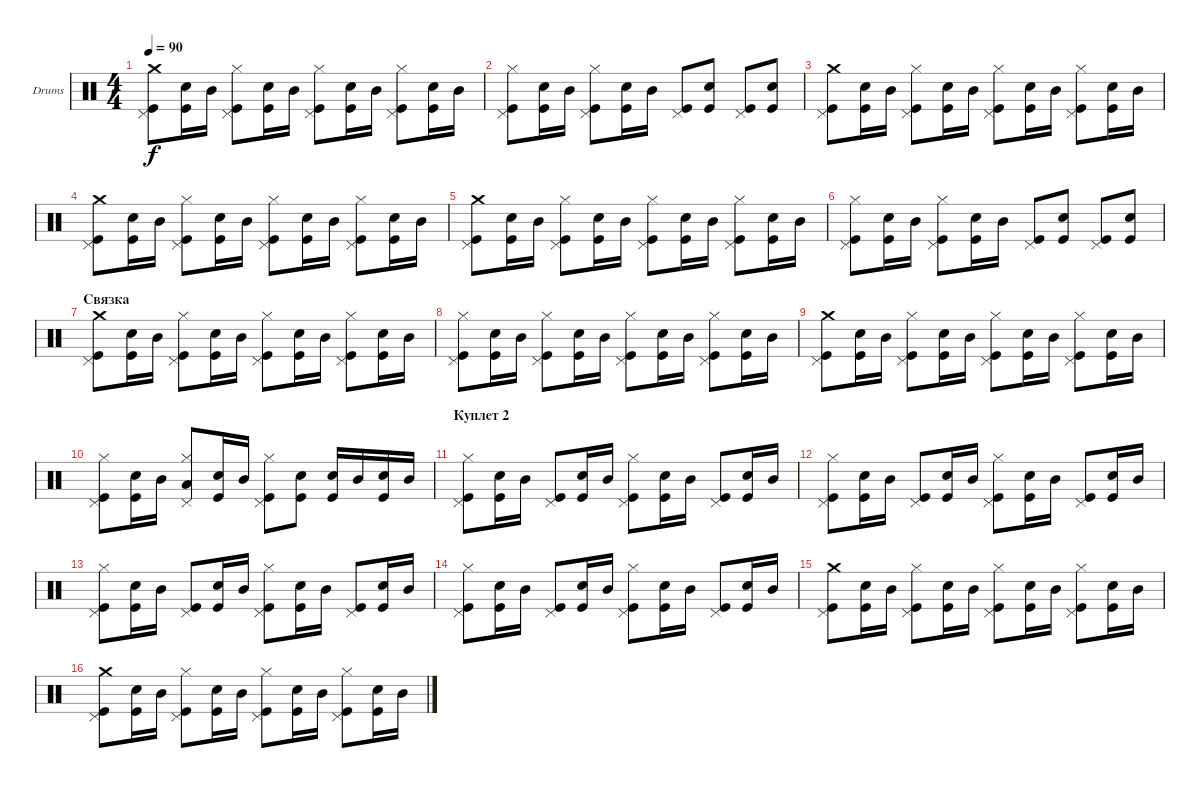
\defaultSystemsLayout 4
\bracketExtendMode groupsimilarinstruments
\firstSystemTrackNameOrientation horizontal
\otherSystemsTrackNameOrientation horizontal
\track ("Drums" "Drums") {instrument percussion}
\staff {score}
\articulation defaults
\ts (4 4)
\tempo 90
\clef neutral
\ks c
("Kick (hit)" "Pedal Hi-Hat (hit)" "Crash medium (hit)").8{dy f} ("Snare (hit) 2" "Kick (hit)").16 "Mid Tom (hit)".16 ("Pedal Hi-Hat (hit)" "Hi-Hat (closed)" "Kick (hit)").8 ("Snare (hit) 2" "Kick (hit)").16 "Mid Tom (hit)".16 ("Kick (hit)" "Pedal Hi-Hat (hit)" "Hi-Hat (closed)").8 ("Snare (hit) 2" "Kick (hit)").16 "Mid Tom (hit)".16 ("Kick (hit)" "Pedal Hi-Hat (hit)" "Hi-Hat (closed)").8 ("Snare (hit) 2" "Kick (hit)").16 "Mid Tom (hit)".16 |
("Kick (hit)" "Pedal Hi-Hat (hit)" "Hi-Hat (closed)").8 ("Snare (hit) 2" "Kick (hit)").16 "Mid Tom (hit)".16 ("Pedal Hi-Hat (hit)" "Hi-Hat (closed)" "Kick (hit)").8 ("Snare (hit) 2" "Kick (hit)").16 "Mid Tom (hit)".16 ("Kick (hit)" "Pedal Hi-Hat (hit)").8 ("Snare (hit) 2" "Kick (hit)").8 ("Kick (hit)" "Pedal Hi-Hat (hit)").8 ("Snare (hit) 2" "Kick (hit)").8 |
\scale
0.333333 ("Kick (hit)" "Pedal Hi-Hat (hit)" "Crash medium (hit)").8 ("Snare (hit) 2" "Kick (hit)").16 "Mid Tom (hit)".16 ("Pedal Hi-Hat (hit)" "Hi-Hat (closed)" "Kick (hit)").8 ("Snare (hit) 2" "Kick (hit)").16 "Mid Tom (hit)".16 ("Kick (hit)" "Pedal Hi-Hat (hit)" "Hi-Hat (closed)").8 ("Snare (hit) 2" "Kick (hit)").16 "Mid Tom (hit)".16 ("Kick (hit)" "Pedal Hi-Hat (hit)" "Hi-Hat (closed)").8 ("Snare (hit) 2" "Kick (hit)").16 "Mid Tom (hit)".16 |
\scale
0.333333 ("Kick (hit)" "Pedal Hi-Hat (hit)" "Crash medium (hit)").8 ("Snare (hit) 2" "Kick (hit)").16 "Mid Tom (hit)".16 ("Pedal Hi-Hat (hit)" "Hi-Hat (closed)" "Kick (hit)").8 ("Snare (hit) 2" "Kick (hit)").16 "Mid Tom (hit)".16 ("Kick (hit)" "Pedal Hi-Hat (hit)" "Hi-Hat (closed)").8 ("Snare (hit) 2" "Kick (hit)").16 "Mid Tom (hit)".16 ("Kick (hit)" "Pedal Hi-Hat (hit)" "Hi-Hat (closed)").8 ("Snare (hit) 2" "Kick (hit)").16 "Mid Tom (hit)".16 |
\scale
0.333333 ("Kick (hit)" "Pedal Hi-Hat (hit)" "Crash medium (hit)").8 ("Snare (hit) 2" "Kick (hit)").16 "Mid Tom (hit)".16 ("Pedal Hi-Hat (hit)" "Hi-Hat (closed)" "Kick (hit)").8 ("Snare (hit) 2" "Kick (hit)").16 "Mid Tom (hit)".16 ("Kick (hit)" "Pedal Hi-Hat (hit)" "Hi-Hat (closed)").8 ("Snare (hit) 2" "Kick (hit)").16 "Mid Tom (hit)".16 ("Kick (hit)" "Pedal Hi-Hat (hit)" "Hi-Hat (closed)").8 ("Snare (hit) 2" "Kick (hit)").16 "Mid Tom (hit)".16 |
\scale
0.333333 ("Kick (hit)" "Pedal Hi-Hat (hit)" "Hi-Hat (closed)").8 ("Snare (hit) 2" "Kick (hit)").16 "Mid Tom (hit)".16 ("Pedal Hi-Hat (hit)" "Hi-Hat (closed)" "Kick (hit)").8 ("Snare (hit) 2" "Kick (hit)").16 "Mid Tom (hit)".16 ("Kick (hit)" "Pedal Hi-Hat (hit)").8 ("Snare (hit) 2" "Kick (hit)").8 ("Kick (hit)" "Pedal Hi-Hat (hit)").8 ("Snare (hit) 2" "Kick (hit)").8 |
\section ("" "Связка")
\scale
0.333333 ("Kick (hit)" "Pedal Hi-Hat (hit)" "Crash medium (hit)").8 ("Snare (hit) 2" "Kick (hit)").16 "Mid Tom (hit)".16 ("Pedal Hi-Hat (hit)" "Hi-Hat (closed)" "Kick (hit)").8 ("Snare (hit) 2" "Kick (hit)").16 "Mid Tom (hit)".16 ("Kick (hit)" "Pedal Hi-Hat (hit)" "Hi-Hat (closed)").8 ("Snare (hit) 2" "Kick (hit)").16 "Mid Tom (hit)".16 ("Kick (hit)" "Pedal Hi-Hat (hit)" "Hi-Hat (closed)").8 ("Snare (hit) 2" "Kick (hit)").16 "Mid Tom (hit)".16 |
\scale
0.333333 ("Kick (hit)" "Pedal Hi-Hat (hit)" "Hi-Hat (closed)").8 ("Snare (hit) 2" "Kick (hit)").16 "Mid Tom (hit)".16 ("Pedal Hi-Hat (hit)" "Hi-Hat (closed)" "Kick (hit)").8 ("Snare (hit) 2" "Kick (hit)").16 "Mid Tom (hit)".16 ("Kick (hit)" "Pedal Hi-Hat (hit)" "Hi-Hat (closed)").8 ("Snare (hit) 2" "Kick (hit)").16 "Mid Tom (hit)".16 ("Kick (hit)" "Pedal Hi-Hat (hit)" "Hi-Hat (closed)").8 ("Snare (hit) 2" "Kick (hit)").16 "Mid Tom (hit)".16 |
\scale
0.333333 ("Kick (hit)" "Pedal Hi-Hat (hit)" "Crash medium (hit)").8 ("Snare (hit) 2" "Kick (hit)").16 "Mid Tom (hit)".16 ("Pedal Hi-Hat (hit)" "Hi-Hat (closed)" "Kick (hit)").8 ("Snare (hit) 2" "Kick (hit)").16 "Mid Tom (hit)".16 ("Kick (hit)" "Pedal Hi-Hat (hit)" "Hi-Hat (closed)").8 ("Snare (hit) 2" "Kick (hit)").16 "Mid Tom (hit)".16 ("Kick (hit)" "Pedal Hi-Hat (hit)" "Hi-Hat (closed)").8 ("Snare (hit) 2" "Kick (hit)").16 "Mid Tom (hit)".16 |
\scale
0.333333 ("Kick (hit)" "Pedal Hi-Hat (hit)" "Hi-Hat (closed)").8 ("Snare (hit) 2" "Kick (hit)").16 "Mid Tom (hit)".16 ("Pedal Hi-Hat (hit)" "Hi-Hat (closed)" "Low Tom (hit)").8 ("Snare (hit) 2" "Kick (hit)").16 "Mid Tom (hit)".16 ("Kick (hit)" "Pedal Hi-Hat (hit)" "Hi-Hat (closed)").8 ("Snare (hit) 2" "Kick (hit)").8 ("Snare (hit) 2" "Kick (hit)").16 "Mid Tom (hit)".16 ("Snare (hit) 2" "Kick (hit)").16 "Mid Tom (hit)".16 |
\section ("" "Куплет 2")
\scale
0.333333 ("Kick (hit)" "Pedal Hi-Hat (hit)" "Hi-Hat (closed)").8 ("Snare (hit) 2" "Kick (hit)").16 "Mid Tom (hit)".16 ("Pedal Hi-Hat (hit)" "Kick (hit)").8 ("Snare (hit) 2" "Kick (hit)").16 "Mid Tom (hit)".16 ("Kick (hit)" "Pedal Hi-Hat (hit)" "Hi-Hat (closed)").8 ("Snare (hit) 2" "Kick (hit)").16 "Mid Tom (hit)".16 ("Kick (hit)" "Pedal Hi-Hat (hit)").8 ("Snare (hit) 2" "Kick (hit)").16 "Mid Tom (hit)".16 |
\scale
0.333333 ("Kick (hit)" "Pedal Hi-Hat (hit)" "Hi-Hat (closed)").8 ("Snare (hit) 2" "Kick (hit)").16 "Mid Tom (hit)".16 ("Pedal Hi-Hat (hit)" "Kick (hit)").8 ("Snare (hit) 2" "Kick (hit)").16 "Mid Tom (hit)".16 ("Kick (hit)" "Pedal Hi-Hat (hit)" "Hi-Hat (closed)").8 ("Snare (hit) 2" "Kick (hit)").16 "Mid Tom (hit)".16 ("Kick (hit)" "Pedal Hi-Hat (hit)").8 ("Snare (hit) 2" "Kick (hit)").16 "Mid Tom (hit)".16 |
\scale
0.333333 ("Kick (hit)" "Pedal Hi-Hat (hit)" "Hi-Hat (closed)").8 ("Snare (hit) 2" "Kick (hit)").16 "Mid Tom (hit)".16 ("Pedal Hi-Hat (hit)" "Kick (hit)").8 ("Snare (hit) 2" "Kick (hit)").16 "Mid Tom (hit)".16 ("Kick (hit)" "Pedal Hi-Hat (hit)" "Hi-Hat (closed)").8 ("Snare (hit) 2" "Kick (hit)").16 "Mid Tom (hit)".16 ("Kick (hit)" "Pedal Hi-Hat (hit)").8 ("Snare (hit) 2" "Kick (hit)").16 "Mid Tom (hit)".16 |
\scale
0.333333 ("Kick (hit)" "Pedal Hi-Hat (hit)" "Hi-Hat (closed)").8 ("Snare (hit) 2" "Kick (hit)").16 "Mid Tom (hit)".16 ("Pedal Hi-Hat (hit)" "Kick (hit)").8 ("Snare (hit) 2" "Kick (hit)").16 "Mid Tom (hit)".16 ("Kick (hit)" "Pedal Hi-Hat (hit)" "Hi-Hat (closed)").8 ("Snare (hit) 2" "Kick (hit)").16 "Mid Tom (hit)".16 ("Kick (hit)" "Pedal Hi-Hat (hit)").8 ("Snare (hit) 2" "Kick (hit)").16 "Mid Tom (hit)".16 |
("Kick (hit)" "Pedal Hi-Hat (hit)" "Crash medium (hit)").8 ("Snare (hit) 2" "Kick (hit)").16 "Mid Tom (hit)".16 ("Pedal Hi-Hat (hit)" "Hi-Hat (closed)" "Kick (hit)").8 ("Snare (hit) 2" "Kick (hit)").16 "Mid Tom (hit)".16 ("Kick (hit)" "Pedal Hi-Hat (hit)" "Hi-Hat (closed)").8 ("Snare (hit) 2" "Kick (hit)").16 "Mid Tom (hit)".16 ("Kick (hit)" "Pedal Hi-Hat (hit)" "Hi-Hat (closed)").8 ("Snare (hit) 2" "Kick (hit)").16 "Mid Tom (hit)".16 |
("Kick (hit)" "Pedal Hi-Hat (hit)" "Crash medium (hit)").8 ("Snare (hit) 2" "Kick (hit)").16 "Mid Tom (hit)".16 ("Pedal Hi-Hat (hit)" "Hi-Hat (closed)" "Kick (hit)").8 ("Snare (hit) 2" "Kick (hit)").16 "Mid Tom (hit)".16 ("Kick (hit)" "Pedal Hi-Hat (hit)" "Hi-Hat (closed)").8 ("Snare (hit) 2" "Kick (hit)").16 "Mid Tom (hit)".16 ("Kick (hit)" "Pedal Hi-Hat (hit)" "Hi-Hat (closed)").8 ("Snare (hit) 2" "Kick (hit)").16 "Mid Tom (hit)".16
